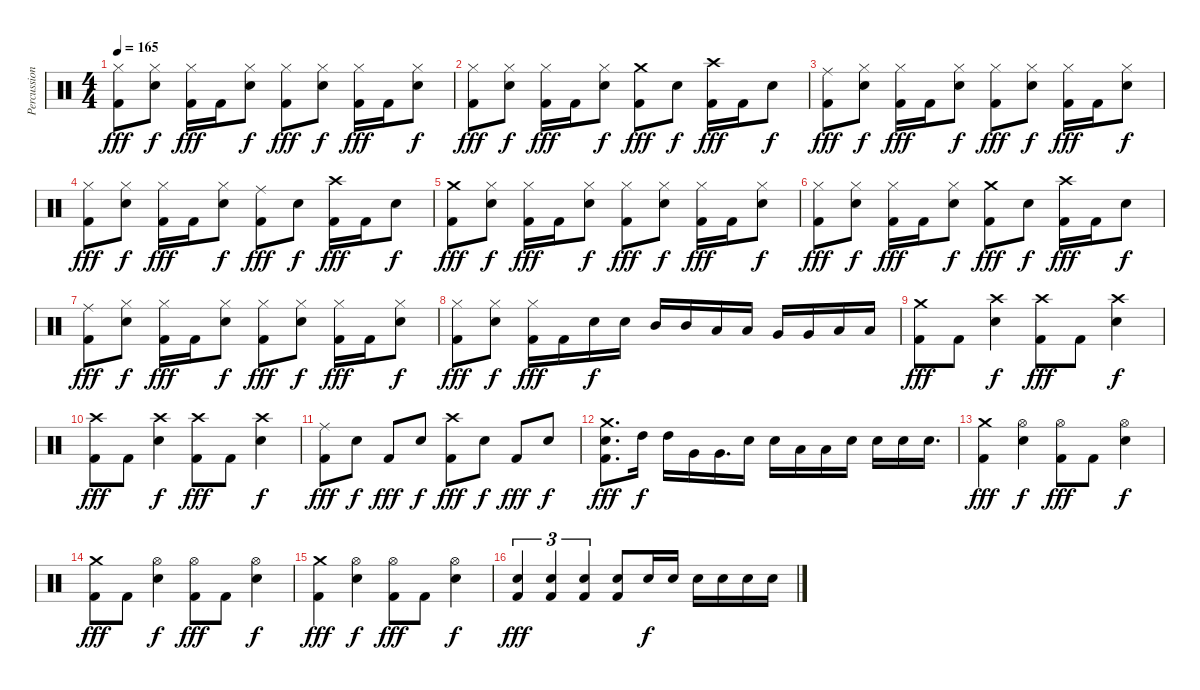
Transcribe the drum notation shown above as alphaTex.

\track ("Percussion" "Percussion") {instrument percussion}
\staff {score}
\articulation defaults
\ts (4 4)
\tempo 165
\clef neutral
\ks c
("Hi-Hat (closed)" "Kick (hit) 2").8{dy fff} ("Hi-Hat (closed)" "Electric Snare (hit)").8{dy f} ("Hi-Hat (closed)" "Kick (hit) 2").16{dy fff} "Kick (hit) 2".16 ("Hi-Hat (closed)" "Electric Snare (hit)").8{dy f} ("Hi-Hat (closed)" "Kick (hit) 2").8{dy fff} ("Hi-Hat (closed)" "Electric Snare (hit)").8{dy f} ("Hi-Hat (closed)" "Kick (hit) 2").16{dy fff} "Kick (hit) 2".16 ("Hi-Hat (closed)" "Electric Snare (hit)").8{dy f} |
("Hi-Hat (closed)" "Kick (hit) 2").8{dy fff} ("Hi-Hat (closed)" "Electric Snare (hit)").8{dy f} ("Hi-Hat (closed)" "Kick (hit) 2").16{dy fff} "Kick (hit) 2".16 ("Hi-Hat (closed)" "Electric Snare (hit)").8{dy f} ("Crash medium (hit)" "Kick (hit) 2").8{dy fff} "Electric Snare (hit)".8{dy f} ("Crash high (hit)" "Kick (hit) 2").16{dy fff} "Kick (hit) 2".16 "Electric Snare (hit)".8{dy f} |
("Ride (middle)" "Kick (hit) 2").8{dy fff} ("Hi-Hat (closed)" "Electric Snare (hit)").8{dy f} ("Hi-Hat (closed)" "Kick (hit) 2").16{dy fff} "Kick (hit) 2".16 ("Hi-Hat (closed)" "Electric Snare (hit)").8{dy f} ("Hi-Hat (closed)" "Kick (hit) 2").8{dy fff} ("Hi-Hat (closed)" "Electric Snare (hit)").8{dy f} ("Hi-Hat (closed)" "Kick (hit) 2").16{dy fff} "Kick (hit) 2".16 ("Hi-Hat (closed)" "Electric Snare (hit)").8{dy f} |
("Hi-Hat (closed)" "Kick (hit) 2").8{dy fff} ("Hi-Hat (closed)" "Electric Snare (hit)").8{dy f} ("Hi-Hat (closed)" "Kick (hit) 2").16{dy fff} "Kick (hit) 2".16 ("Hi-Hat (closed)" "Electric Snare (hit)").8{dy f} ("Ride (middle)" "Kick (hit) 2").8{dy fff} "Electric Snare (hit)".8{dy f} ("Crash high (hit)" "Kick (hit) 2").16{dy fff} "Kick (hit) 2".16 "Electric Snare (hit)".8{dy f} |
("Crash medium (hit)" "Kick (hit) 2").8{dy fff} ("Hi-Hat (closed)" "Electric Snare (hit)").8{dy f} ("Hi-Hat (closed)" "Kick (hit) 2").16{dy fff} "Kick (hit) 2".16 ("Hi-Hat (closed)" "Electric Snare (hit)").8{dy f} ("Hi-Hat (closed)" "Kick (hit) 2").8{dy fff} ("Hi-Hat (closed)" "Electric Snare (hit)").8{dy f} ("Hi-Hat (closed)" "Kick (hit) 2").16{dy fff} "Kick (hit) 2".16 ("Hi-Hat (closed)" "Electric Snare (hit)").8{dy f} |
("Hi-Hat (closed)" "Kick (hit) 2").8{dy fff} ("Hi-Hat (closed)" "Electric Snare (hit)").8{dy f} ("Hi-Hat (closed)" "Kick (hit) 2").16{dy fff} "Kick (hit) 2".16 ("Hi-Hat (closed)" "Electric Snare (hit)").8{dy f} ("Crash medium (hit)" "Kick (hit) 2").8{dy fff} "Electric Snare (hit)".8{dy f} ("Crash high (hit)" "Kick (hit) 2").16{dy fff} "Kick (hit) 2".16 "Electric Snare (hit)".8{dy f} |
("Ride (middle)" "Kick (hit) 2").8{dy fff} ("Hi-Hat (closed)" "Electric Snare (hit)").8{dy f} ("Hi-Hat (closed)" "Kick (hit) 2").16{dy fff} "Kick (hit) 2".16 ("Hi-Hat (closed)" "Electric Snare (hit)").8{dy f} ("Hi-Hat (closed)" "Kick (hit) 2").8{dy fff} ("Hi-Hat (closed)" "Electric Snare (hit)").8{dy f} ("Hi-Hat (closed)" "Kick (hit) 2").16{dy fff} "Kick (hit) 2".16 ("Hi-Hat (closed)" "Electric Snare (hit)").8{dy f} |
("Hi-Hat (closed)" "Kick (hit) 2").8{dy fff} ("Hi-Hat (closed)" "Electric Snare (hit)").8{dy f} ("Hi-Hat (closed)" "Kick (hit) 2").16{dy fff} "Kick (hit) 2".16 "Electric Snare (hit)".16{dy f} "Electric Snare (hit)".16 "Mid Tom (hit)".16 "Mid Tom (hit)".16 "Low Tom (hit)".16 "Low Tom (hit)".16 "Very Low Tom (hit)".16 "Very Low Tom (hit)".16 "Low Floor Tom (hit)".16 "Low Floor Tom (hit)".16 |
("Crash medium (hit)" "Kick (hit) 2").8{dy fff} "Kick (hit) 2".8 ("Crash high (hit)" "Electric Snare (hit)").4{dy f} ("Crash high (hit)" "Kick (hit) 2").8{dy fff} "Kick (hit) 2".8 ("Crash high (hit)" "Electric Snare (hit)").4{dy f} |
("Crash high (hit)" "Kick (hit) 2").8{dy fff} "Kick (hit) 2".8 ("Crash high (hit)" "Electric Snare (hit)").4{dy f} ("Crash high (hit)" "Kick (hit) 2").8{dy fff} "Kick (hit) 2".8 ("Crash high (hit)" "Electric Snare (hit)").4{dy f} |
("Ride (middle)" "Kick (hit) 2").8{dy fff} "Electric Snare (hit)".8{dy f} "Kick (hit) 2".8{dy fff} "Electric Snare (hit)".8{dy f} ("Crash high (hit)" "Kick (hit) 2").8{dy fff} "Electric Snare (hit)".8{dy f} "Kick (hit) 2".8{dy fff} "Electric Snare (hit)".8{dy f} |
("Crash medium (hit)" "Electric Snare (hit)" "Kick (hit) 2").8{d dy fff} "High Tom (hit)".16{dy f} "High Tom (hit)".16 "Very Low Tom (hit)".16 "Very Low Tom (hit)".16{d} "Electric Snare (hit)".16 "Electric Snare (hit)".16 "Low Tom (hit)".16 "Low Tom (hit)".16 "Electric Snare (hit)".16 "Electric Snare (hit)".16 "Electric Snare (hit)".16 "Electric Snare (hit)".16{d} |
("Crash medium (hit)" "Kick (hit) 2").4{dy fff} ("Hi-Hat (open)" "Electric Snare (hit)").4{dy f} ("Hi-Hat (open)" "Kick (hit) 2").8{dy fff} "Kick (hit) 2".8 ("Hi-Hat (open)" "Electric Snare (hit)").4{dy f} |
("Crash medium (hit)" "Kick (hit) 2").8{dy fff} "Kick (hit) 2".8 ("Hi-Hat (open)" "Electric Snare (hit)").4{dy f} ("Hi-Hat (open)" "Kick (hit) 2").8{dy fff} "Kick (hit) 2".8 ("Hi-Hat (open)" "Electric Snare (hit)").4{dy f} |
("Crash medium (hit)" "Kick (hit) 2").4{dy fff} ("Hi-Hat (open)" "Electric Snare (hit)").4{dy f} ("Hi-Hat (open)" "Kick (hit) 2").8{dy fff} "Kick (hit) 2".8 ("Hi-Hat (open)" "Electric Snare (hit)").4{dy f} |
("Electric Snare (hit)" "Kick (hit) 2").4{tu (3 2) dy fff} ("Electric Snare (hit)" "Kick (hit) 2").4{tu (3 2)} ("Electric Snare (hit)" "Kick (hit) 2").4{tu (3 2)} ("Electric Snare (hit)" "Kick (hit) 2").8 "Electric Snare (hit)".16{dy f} "Electric Snare (hit)".16 "Electric Snare (hit)".16 "Electric Snare (hit)".16 "Electric Snare (hit)".16 "Electric Snare (hit)".16
